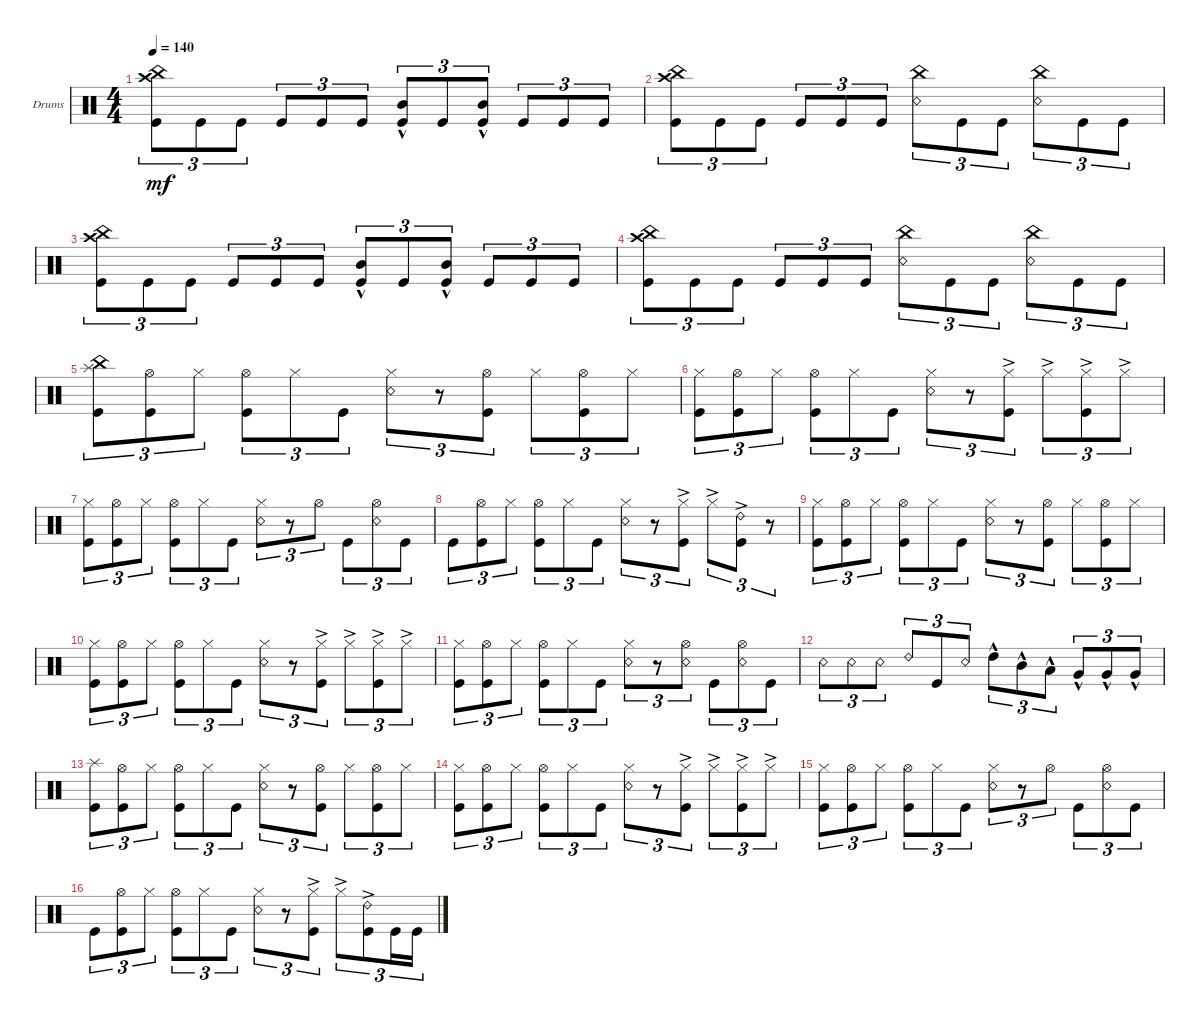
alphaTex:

\defaultSystemsLayout 4
\bracketExtendMode groupsimilarinstruments
\firstSystemTrackNameOrientation horizontal
\otherSystemsTrackNameOrientation horizontal
\track ("Drumkit" "Drums") {instrument percussion}
\staff {score}
\articulation defaults
\ts (4 4)
\tempo 140
\clef neutral
\ks c
("China (hit)" "Kick (hit)" "Crash high (hit)").8{tu (3 2) dy mf} "Kick (hit)".8{tu (3 2)} "Kick (hit)".8{tu (3 2)} "Kick (hit)".8{tu (3 2)} "Kick (hit)".8{tu (3 2)} "Kick (hit)".8{tu (3 2)} ("Kick (hit)" "Mid Tom (hit)"{hac}).8{tu (3 2)} "Kick (hit)".8{tu (3 2)} ("Kick (hit)" "Mid Tom (hit)"{hac}).8{tu (3 2)} "Kick (hit)".8{tu (3 2)} "Kick (hit)".8{tu (3 2)} "Kick (hit)".8{tu (3 2)} |
("China (hit)" "Kick (hit)" "Crash high (hit)").8{tu (3 2)} "Kick (hit)".8{tu (3 2)} "Kick (hit)".8{tu (3 2)} "Kick (hit)".8{tu (3 2)} "Kick (hit)".8{tu (3 2)} "Kick (hit)".8{tu (3 2)} ("Snare (rim shot)" "China (hit)").8{tu (3 2)} "Kick (hit)".8{tu (3 2)} "Kick (hit)".8{tu (3 2)} ("Snare (rim shot)" "China (hit)").8{tu (3 2)} "Kick (hit)".8{tu (3 2)} "Kick (hit)".8{tu (3 2)} |
("China (hit)" "Kick (hit)" "Crash high (hit)").8{tu (3 2)} "Kick (hit)".8{tu (3 2)} "Kick (hit)".8{tu (3 2)} "Kick (hit)".8{tu (3 2)} "Kick (hit)".8{tu (3 2)} "Kick (hit)".8{tu (3 2)} ("Kick (hit)" "Mid Tom (hit)"{hac}).8{tu (3 2)} "Kick (hit)".8{tu (3 2)} ("Kick (hit)" "Mid Tom (hit)"{hac}).8{tu (3 2)} "Kick (hit)".8{tu (3 2)} "Kick (hit)".8{tu (3 2)} "Kick (hit)".8{tu (3 2)} |
("China (hit)" "Kick (hit)" "Crash high (hit)").8{tu (3 2)} "Kick (hit)".8{tu (3 2)} "Kick (hit)".8{tu (3 2)} "Kick (hit)".8{tu (3 2)} "Kick (hit)".8{tu (3 2)} "Kick (hit)".8{tu (3 2)} ("Snare (rim shot)" "China (hit)").8{tu (3 2)} "Kick (hit)".8{tu (3 2)} "Kick (hit)".8{tu (3 2)} ("Snare (rim shot)" "China (hit)").8{tu (3 2)} "Kick (hit)".8{tu (3 2)} "Kick (hit)".8{tu (3 2)} |
("Kick (hit)" "China (hit)" "Splash (hit)").8{tu (3 2)} ("Kick (hit)" "Hi-Hat (open)").8{tu (3 2)} "Hi-Hat (closed)".8{tu (3 2)} ("Hi-Hat (open)" "Kick (hit)").8{tu (3 2)} "Hi-Hat (closed)".8{tu (3 2)} "Kick (hit)".8{tu (3 2)} ("Snare (rim shot)" "Hi-Hat (closed)").8{tu (3 2)} r.8{tu (3 2)} ("Kick (hit)" "Hi-Hat (open)").8{tu (3 2)} "Hi-Hat (closed)".8{tu (3 2)} ("Kick (hit)" "Hi-Hat (open)").8{tu (3 2)} "Hi-Hat (closed)".8{tu (3 2)} |
("Kick (hit)" "Hi-Hat (closed)").8{tu (3 2)} ("Kick (hit)" "Hi-Hat (open)").8{tu (3 2)} "Hi-Hat (closed)".8{tu (3 2)} ("Hi-Hat (open)" "Kick (hit)").8{tu (3 2)} "Hi-Hat (closed)".8{tu (3 2)} "Kick (hit)".8{tu (3 2)} ("Snare (rim shot)" "Hi-Hat (closed)").8{tu (3 2)} r.8{tu (3 2)} ("Kick (hit)"{ac} "Hi-Hat (closed)"{ac}).8{tu (3 2)} "Hi-Hat (closed)"{ac}.8{tu (3 2)} ("Kick (hit)"{ac} "Hi-Hat (closed)"{ac}).8{tu (3 2)} "Hi-Hat (closed)"{ac}.8{tu (3 2)} |
("Kick (hit)" "Hi-Hat (closed)").8{tu (3 2)} ("Kick (hit)" "Hi-Hat (open)").8{tu (3 2)} "Hi-Hat (closed)".8{tu (3 2)} ("Hi-Hat (open)" "Kick (hit)").8{tu (3 2)} "Hi-Hat (closed)".8{tu (3 2)} "Kick (hit)".8{tu (3 2)} ("Snare (rim shot)" "Hi-Hat (closed)").8{tu (3 2)} r.8{tu (3 2)} "Hi-Hat (open)".8{tu (3 2)} "Kick (hit)".8{tu (3 2)} ("Hi-Hat (open)" "Snare (rim shot)").8{tu (3 2)} "Kick (hit)".8{tu (3 2)} |
"Kick (hit)".8{tu (3 2)} ("Kick (hit)" "Hi-Hat (open)").8{tu (3 2)} "Hi-Hat (closed)".8{tu (3 2)} ("Hi-Hat (open)" "Kick (hit)").8{tu (3 2)} "Hi-Hat (closed)".8{tu (3 2)} "Kick (hit)".8{tu (3 2)} ("Snare (rim shot)" "Hi-Hat (closed)").8{tu (3 2)} r.8{tu (3 2)} ("Kick (hit)"{ac} "Hi-Hat (closed)"{ac}).8{tu (3 2)} "Hi-Hat (closed)"{ac}.8{tu (3 2)} ("Kick (hit)"{ac} "Ride (bell) 2").8{tu (3 2)} r.8{tu (3 2)} |
("Kick (hit)" "Hi-Hat (closed)").8{tu (3 2)} ("Kick (hit)" "Hi-Hat (open)").8{tu (3 2)} "Hi-Hat (closed)".8{tu (3 2)} ("Hi-Hat (open)" "Kick (hit)").8{tu (3 2)} "Hi-Hat (closed)".8{tu (3 2)} "Kick (hit)".8{tu (3 2)} ("Snare (rim shot)" "Hi-Hat (closed)").8{tu (3 2)} r.8{tu (3 2)} ("Kick (hit)" "Hi-Hat (open)").8{tu (3 2)} "Hi-Hat (closed)".8{tu (3 2)} ("Kick (hit)" "Hi-Hat (open)").8{tu (3 2)} "Hi-Hat (closed)".8{tu (3 2)} |
("Kick (hit)" "Hi-Hat (closed)").8{tu (3 2)} ("Kick (hit)" "Hi-Hat (open)").8{tu (3 2)} "Hi-Hat (closed)".8{tu (3 2)} ("Hi-Hat (open)" "Kick (hit)").8{tu (3 2)} "Hi-Hat (closed)".8{tu (3 2)} "Kick (hit)".8{tu (3 2)} ("Snare (rim shot)" "Hi-Hat (closed)").8{tu (3 2)} r.8{tu (3 2)} ("Kick (hit)"{ac} "Hi-Hat (closed)"{ac}).8{tu (3 2)} "Hi-Hat (closed)"{ac}.8{tu (3 2)} ("Kick (hit)"{ac} "Hi-Hat (closed)"{ac}).8{tu (3 2)} "Hi-Hat (closed)"{ac}.8{tu (3 2)} |
("Kick (hit)" "Hi-Hat (closed)").8{tu (3 2)} ("Kick (hit)" "Hi-Hat (open)").8{tu (3 2)} "Hi-Hat (closed)".8{tu (3 2)} ("Hi-Hat (open)" "Kick (hit)").8{tu (3 2)} "Hi-Hat (closed)".8{tu (3 2)} "Kick (hit)".8{tu (3 2)} ("Snare (rim shot)" "Hi-Hat (closed)").8{tu (3 2)} r.8{tu (3 2)} ("Hi-Hat (open)" "Snare (rim shot)").8{tu (3 2)} "Kick (hit)".8{tu (3 2)} ("Hi-Hat (open)" "Snare (rim shot)").8{tu (3 2)} "Kick (hit)".8{tu (3 2)} |
"Snare (rim shot)".8{tu (3 2)} "Snare (rim shot)".8{tu (3 2)} "Snare (rim shot)".8{tu (3 2)} "Ride (bell) 2".8{tu (3 2)} "Kick (hit)".8{tu (3 2)} "Snare (rim shot)".8{tu (3 2)} "High Tom (hit)"{hac}.8{tu (3 2)} "Mid Tom (hit)"{hac}.8{tu (3 2)} "Low Tom (hit)"{hac}.8{tu (3 2)} "Very Low Tom (hit)"{hac}.8{tu (3 2)} "Very Low Tom (hit)"{hac}.8{tu (3 2)} "Very Low Tom (hit)"{hac}.8{tu (3 2)} |
("Kick (hit)" "Splash (hit)").8{tu (3 2)} ("Kick (hit)" "Hi-Hat (open)").8{tu (3 2)} "Hi-Hat (closed)".8{tu (3 2)} ("Hi-Hat (open)" "Kick (hit)").8{tu (3 2)} "Hi-Hat (closed)".8{tu (3 2)} "Kick (hit)".8{tu (3 2)} ("Snare (rim shot)" "Hi-Hat (closed)").8{tu (3 2)} r.8{tu (3 2)} ("Kick (hit)" "Hi-Hat (open)").8{tu (3 2)} "Hi-Hat (closed)".8{tu (3 2)} ("Kick (hit)" "Hi-Hat (open)").8{tu (3 2)} "Hi-Hat (closed)".8{tu (3 2)} |
("Kick (hit)" "Hi-Hat (closed)").8{tu (3 2)} ("Kick (hit)" "Hi-Hat (open)").8{tu (3 2)} "Hi-Hat (closed)".8{tu (3 2)} ("Hi-Hat (open)" "Kick (hit)").8{tu (3 2)} "Hi-Hat (closed)".8{tu (3 2)} "Kick (hit)".8{tu (3 2)} ("Snare (rim shot)" "Hi-Hat (closed)").8{tu (3 2)} r.8{tu (3 2)} ("Kick (hit)"{ac} "Hi-Hat (closed)"{ac}).8{tu (3 2)} "Hi-Hat (closed)"{ac}.8{tu (3 2)} ("Kick (hit)"{ac} "Hi-Hat (closed)"{ac}).8{tu (3 2)} "Hi-Hat (closed)"{ac}.8{tu (3 2)} |
("Kick (hit)" "Hi-Hat (closed)").8{tu (3 2)} ("Kick (hit)" "Hi-Hat (open)").8{tu (3 2)} "Hi-Hat (closed)".8{tu (3 2)} ("Hi-Hat (open)" "Kick (hit)").8{tu (3 2)} "Hi-Hat (closed)".8{tu (3 2)} "Kick (hit)".8{tu (3 2)} ("Snare (rim shot)" "Hi-Hat (closed)").8{tu (3 2)} r.8{tu (3 2)} "Hi-Hat (open)".8{tu (3 2)} "Kick (hit)".8{tu (3 2)} ("Hi-Hat (open)" "Snare (rim shot)").8{tu (3 2)} "Kick (hit)".8{tu (3 2)} |
"Kick (hit)".8{tu (3 2)} ("Kick (hit)" "Hi-Hat (open)").8{tu (3 2)} "Hi-Hat (closed)".8{tu (3 2)} ("Hi-Hat (open)" "Kick (hit)").8{tu (3 2)} "Hi-Hat (closed)".8{tu (3 2)} "Kick (hit)".8{tu (3 2)} ("Snare (rim shot)" "Hi-Hat (closed)").8{tu (3 2)} r.8{tu (3 2)} ("Kick (hit)"{ac} "Hi-Hat (closed)"{ac}).8{tu (3 2)} "Hi-Hat (closed)"{ac}.8{tu (3 2)} ("Kick (hit)"{ac} "Ride (bell) 2").8{tu (3 2)} "Kick (hit)".16{tu (3 2)} "Kick (hit)".16{tu (3 2)}
